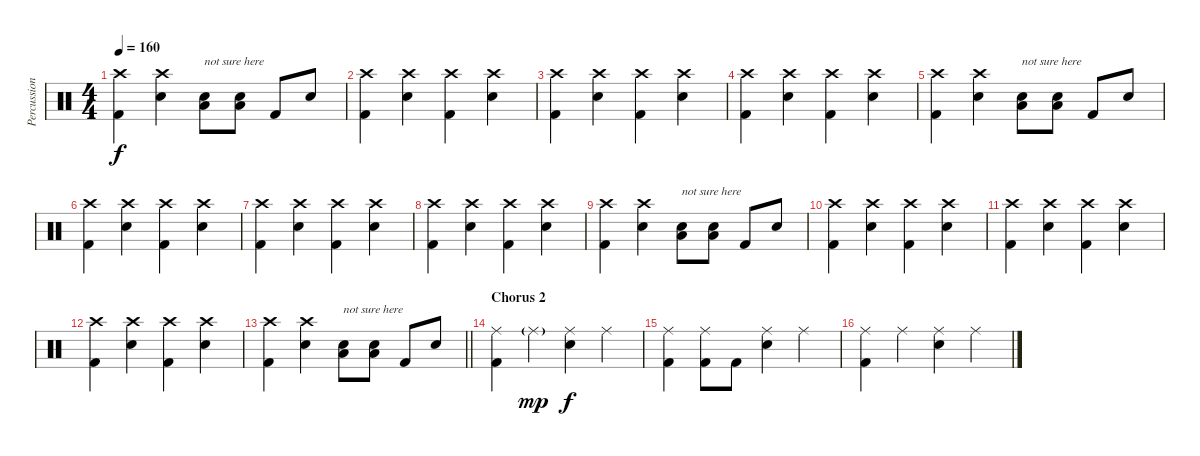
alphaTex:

\track ("Percussion" "Percussion") {solo instrument percussion}
\staff {score}
\articulation defaults
\ts (4 4)
\tempo 160
\clef neutral
\ks c
("Crash high (hit)" "Kick (hit) 2").4{dy f} ("Crash high (hit)" "Snare (hit) 2").4 ("Low Tom (hit)" "Snare (hit) 2").8{txt "not sure here"} ("Low Tom (hit)" "Snare (hit) 2").8 "Kick (hit) 2".8 "Snare (hit) 2".8 |
("Crash high (hit)" "Kick (hit) 2").4 ("Crash high (hit)" "Snare (hit) 2").4 ("Crash high (hit)" "Kick (hit) 2").4 ("Crash high (hit)" "Snare (hit) 2").4 |
("Crash high (hit)" "Kick (hit) 2").4 ("Crash high (hit)" "Snare (hit) 2").4 ("Crash high (hit)" "Kick (hit) 2").4 ("Crash high (hit)" "Snare (hit) 2").4 |
("Crash high (hit)" "Kick (hit) 2").4 ("Crash high (hit)" "Snare (hit) 2").4 ("Crash high (hit)" "Kick (hit) 2").4 ("Crash high (hit)" "Snare (hit) 2").4 |
("Crash high (hit)" "Kick (hit) 2").4 ("Crash high (hit)" "Snare (hit) 2").4 ("Low Tom (hit)" "Snare (hit) 2").8{txt "not sure here"} ("Low Tom (hit)" "Snare (hit) 2").8 "Kick (hit) 2".8 "Snare (hit) 2".8 |
("Crash high (hit)" "Kick (hit) 2").4 ("Crash high (hit)" "Snare (hit) 2").4 ("Crash high (hit)" "Kick (hit) 2").4 ("Crash high (hit)" "Snare (hit) 2").4 |
("Crash high (hit)" "Kick (hit) 2").4 ("Crash high (hit)" "Snare (hit) 2").4 ("Crash high (hit)" "Kick (hit) 2").4 ("Crash high (hit)" "Snare (hit) 2").4 |
("Crash high (hit)" "Kick (hit) 2").4 ("Crash high (hit)" "Snare (hit) 2").4 ("Crash high (hit)" "Kick (hit) 2").4 ("Crash high (hit)" "Snare (hit) 2").4 |
("Crash high (hit)" "Kick (hit) 2").4 ("Crash high (hit)" "Snare (hit) 2").4 ("Low Tom (hit)" "Snare (hit) 2").8{txt "not sure here"} ("Low Tom (hit)" "Snare (hit) 2").8 "Kick (hit) 2".8 "Snare (hit) 2".8 |
("Crash high (hit)" "Kick (hit) 2").4 ("Crash high (hit)" "Snare (hit) 2").4 ("Crash high (hit)" "Kick (hit) 2").4 ("Crash high (hit)" "Snare (hit) 2").4 |
("Crash high (hit)" "Kick (hit) 2").4 ("Crash high (hit)" "Snare (hit) 2").4 ("Crash high (hit)" "Kick (hit) 2").4 ("Crash high (hit)" "Snare (hit) 2").4 |
("Crash high (hit)" "Kick (hit) 2").4 ("Crash high (hit)" "Snare (hit) 2").4 ("Crash high (hit)" "Kick (hit) 2").4 ("Crash high (hit)" "Snare (hit) 2").4 |
\barLineRight lightlight
("Crash high (hit)" "Kick (hit) 2").4 ("Crash high (hit)" "Snare (hit) 2").4 ("Low Tom (hit)" "Snare (hit) 2").8{txt "not sure here"} ("Low Tom (hit)" "Snare (hit) 2").8 "Kick (hit) 2".8 "Snare (hit) 2".8 |
\section ("" "Chorus 2")
("Ride (middle)" "Kick (hit) 2").4 "Ride (middle)"{g}.4{dy mp} ("Ride (middle)" "Snare (hit) 2").4{dy f} "Ride (middle)".4 |
("Ride (middle)" "Kick (hit) 2").4 ("Ride (middle)" "Kick (hit) 2").8 "Kick (hit) 2".8 ("Ride (middle)" "Snare (hit) 2").4 "Ride (middle)".4 |
("Ride (middle)" "Kick (hit) 2").4 "Ride (middle)".4 ("Ride (middle)" "Snare (hit) 2").4 "Ride (middle)".4
